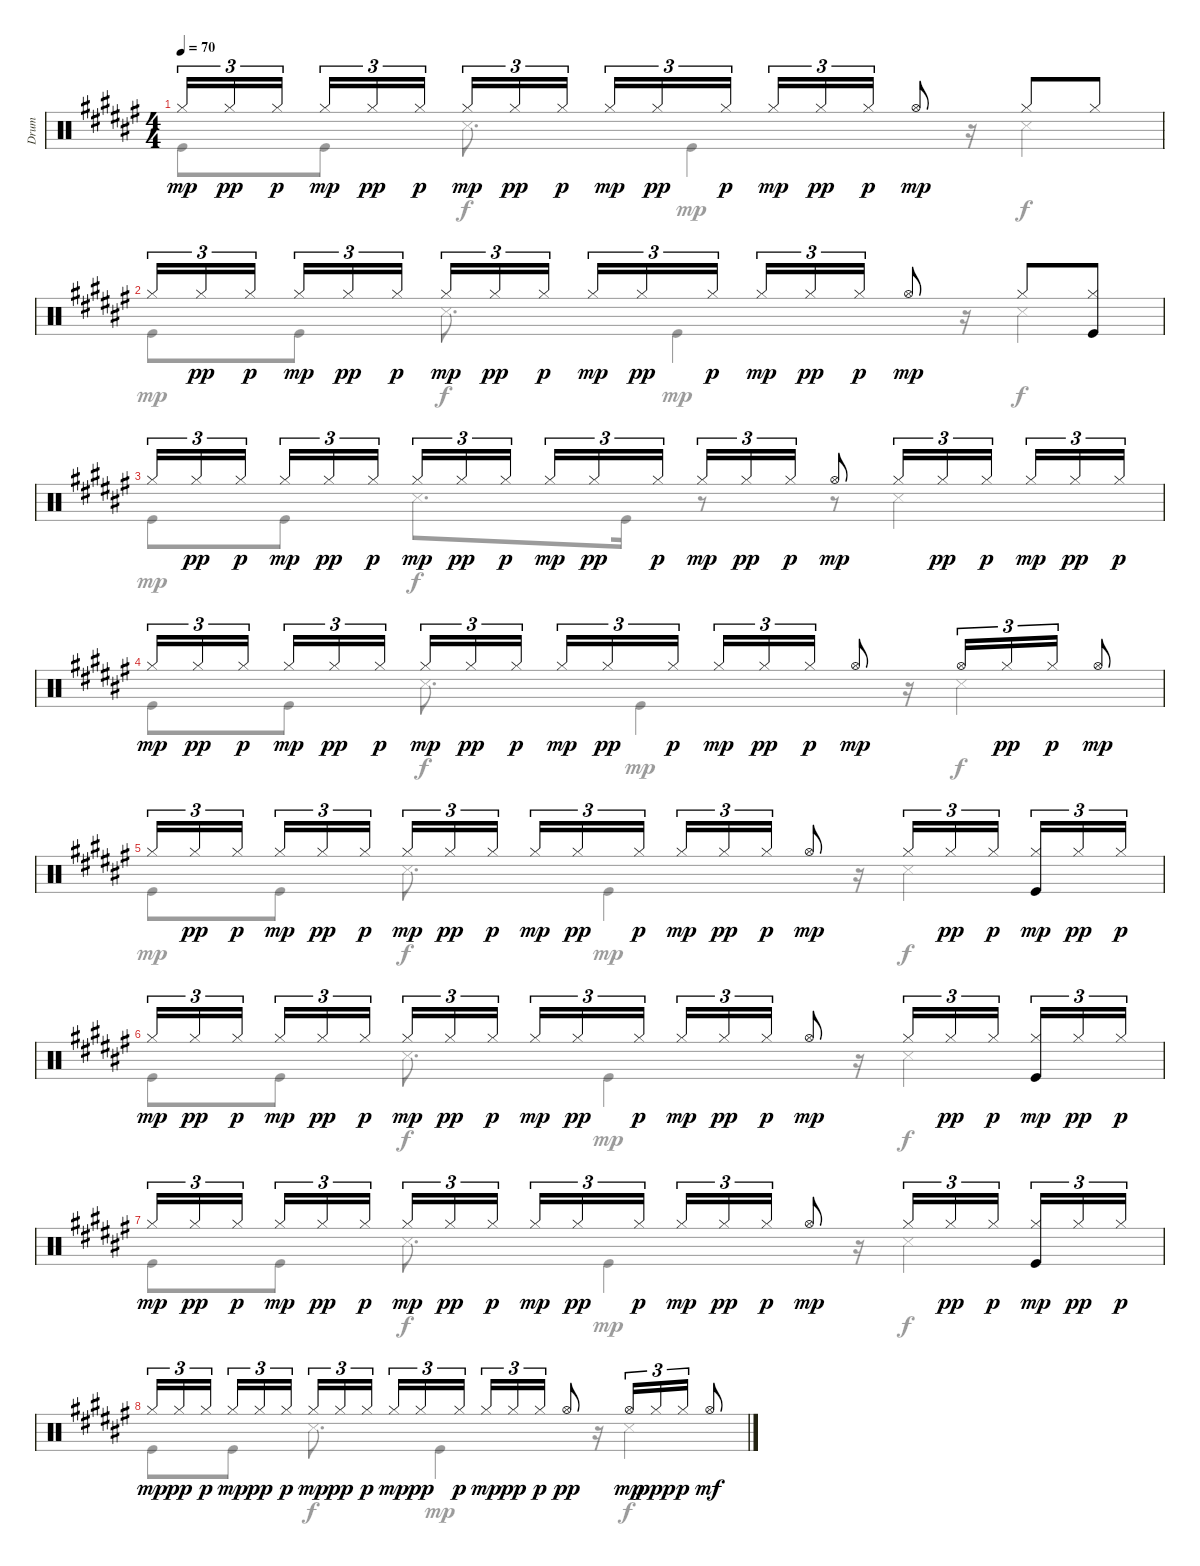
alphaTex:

\track ("Drum" "Drum") {instrument percussion}
\staff {score}
\articulation defaults
\voice
\ts (4 4)
\tempo 70
\clef neutral
\ks f# "Hi-Hat (closed)".16{tu (3 2) dy mp} "Hi-Hat (closed)".16{tu (3 2) dy pp} "Hi-Hat (closed)".16{tu (3 2) dy p beam splitsecondary} "Hi-Hat (closed)".16{tu (3 2) dy mp} "Hi-Hat (closed)".16{tu (3 2) dy pp} "Hi-Hat (closed)".16{tu (3 2) dy p} "Hi-Hat (closed)".16{tu (3 2) dy mp} "Hi-Hat (closed)".16{tu (3 2) dy pp} "Hi-Hat (closed)".16{tu (3 2) dy p beam splitsecondary} "Hi-Hat (closed)".16{tu (3 2) dy mp} "Hi-Hat (closed)".16{tu (3 2) dy pp} "Hi-Hat (closed)".16{tu (3 2) dy p} "Hi-Hat (closed)".16{tu (3 2) dy mp} "Hi-Hat (closed)".16{tu (3 2) dy pp} "Hi-Hat (closed)".16{tu (3 2) dy p} "Hi-Hat (open)".8{dy mp} "Hi-Hat (closed)".8 "Hi-Hat (closed)".8
|
"Hi-Hat (closed)".16{tu (3 2)} "Hi-Hat (closed)".16{tu (3 2) dy pp} "Hi-Hat (closed)".16{tu (3 2) dy p beam splitsecondary} "Hi-Hat (closed)".16{tu (3 2) dy mp} "Hi-Hat (closed)".16{tu (3 2) dy pp} "Hi-Hat (closed)".16{tu (3 2) dy p} "Hi-Hat (closed)".16{tu (3 2) dy mp} "Hi-Hat (closed)".16{tu (3 2) dy pp} "Hi-Hat (closed)".16{tu (3 2) dy p beam splitsecondary} "Hi-Hat (closed)".16{tu (3 2) dy mp} "Hi-Hat (closed)".16{tu (3 2) dy pp} "Hi-Hat (closed)".16{tu (3 2) dy p} "Hi-Hat (closed)".16{tu (3 2) dy mp} "Hi-Hat (closed)".16{tu (3 2) dy pp} "Hi-Hat (closed)".16{tu (3 2) dy p} "Hi-Hat (open)".8{dy mp} "Hi-Hat (closed)".8 ("Hi-Hat (closed)" "Kick (hit)").8 |
"Hi-Hat (closed)".16{tu (3 2)} "Hi-Hat (closed)".16{tu (3 2) dy pp} "Hi-Hat (closed)".16{tu (3 2) dy p beam splitsecondary} "Hi-Hat (closed)".16{tu (3 2) dy mp} "Hi-Hat (closed)".16{tu (3 2) dy pp} "Hi-Hat (closed)".16{tu (3 2) dy p} "Hi-Hat (closed)".16{tu (3 2) dy mp} "Hi-Hat (closed)".16{tu (3 2) dy pp} "Hi-Hat (closed)".16{tu (3 2) dy p beam splitsecondary} "Hi-Hat (closed)".16{tu (3 2) dy mp} "Hi-Hat (closed)".16{tu (3 2) dy pp} "Hi-Hat (closed)".16{tu (3 2) dy p} "Hi-Hat (closed)".16{tu (3 2) dy mp} "Hi-Hat (closed)".16{tu (3 2) dy pp} "Hi-Hat (closed)".16{tu (3 2) dy p} "Hi-Hat (open)".8{dy mp} "Hi-Hat (closed)".16{tu (3 2)} "Hi-Hat (closed)".16{tu (3 2) dy pp} "Hi-Hat (closed)".16{tu (3 2) dy p beam splitsecondary} "Hi-Hat (closed)".16{tu (3 2) dy mp} "Hi-Hat (closed)".16{tu (3 2) dy pp} "Hi-Hat (closed)".16{tu (3 2) dy p} |
"Hi-Hat (closed)".16{tu (3 2) dy mp} "Hi-Hat (closed)".16{tu (3 2) dy pp} "Hi-Hat (closed)".16{tu (3 2) dy p beam splitsecondary} "Hi-Hat (closed)".16{tu (3 2) dy mp} "Hi-Hat (closed)".16{tu (3 2) dy pp} "Hi-Hat (closed)".16{tu (3 2) dy p} "Hi-Hat (closed)".16{tu (3 2) dy mp} "Hi-Hat (closed)".16{tu (3 2) dy pp} "Hi-Hat (closed)".16{tu (3 2) dy p beam splitsecondary} "Hi-Hat (closed)".16{tu (3 2) dy mp} "Hi-Hat (closed)".16{tu (3 2) dy pp} "Hi-Hat (closed)".16{tu (3 2) dy p} "Hi-Hat (closed)".16{tu (3 2) dy mp} "Hi-Hat (closed)".16{tu (3 2) dy pp} "Hi-Hat (closed)".16{tu (3 2) dy p} "Hi-Hat (open)".8{dy mp} "Hi-Hat (open)".16{tu (3 2)} "Hi-Hat (closed)".16{tu (3 2) dy pp} "Hi-Hat (closed)".16{tu (3 2) dy p} "Hi-Hat (open)".8{dy mp} |
"Hi-Hat (closed)".16{tu (3 2)} "Hi-Hat (closed)".16{tu (3 2) dy pp} "Hi-Hat (closed)".16{tu (3 2) dy p beam splitsecondary} "Hi-Hat (closed)".16{tu (3 2) dy mp} "Hi-Hat (closed)".16{tu (3 2) dy pp} "Hi-Hat (closed)".16{tu (3 2) dy p} "Hi-Hat (closed)".16{tu (3 2) dy mp} "Hi-Hat (closed)".16{tu (3 2) dy pp} "Hi-Hat (closed)".16{tu (3 2) dy p beam splitsecondary} "Hi-Hat (closed)".16{tu (3 2) dy mp} "Hi-Hat (closed)".16{tu (3 2) dy pp} "Hi-Hat (closed)".16{tu (3 2) dy p} "Hi-Hat (closed)".16{tu (3 2) dy mp} "Hi-Hat (closed)".16{tu (3 2) dy pp} "Hi-Hat (closed)".16{tu (3 2) dy p} "Hi-Hat (open)".8{dy mp} "Hi-Hat (closed)".16{tu (3 2)} "Hi-Hat (closed)".16{tu (3 2) dy pp} "Hi-Hat (closed)".16{tu (3 2) dy p beam splitsecondary} ("Hi-Hat (closed)" "Kick (hit)").16{tu (3 2) dy mp} "Hi-Hat (closed)".16{tu (3 2) dy pp} "Hi-Hat (closed)".16{tu (3 2) dy p} |
"Hi-Hat (closed)".16{tu (3 2) dy mp} "Hi-Hat (closed)".16{tu (3 2) dy pp} "Hi-Hat (closed)".16{tu (3 2) dy p beam splitsecondary} "Hi-Hat (closed)".16{tu (3 2) dy mp} "Hi-Hat (closed)".16{tu (3 2) dy pp} "Hi-Hat (closed)".16{tu (3 2) dy p} "Hi-Hat (closed)".16{tu (3 2) dy mp} "Hi-Hat (closed)".16{tu (3 2) dy pp} "Hi-Hat (closed)".16{tu (3 2) dy p beam splitsecondary} "Hi-Hat (closed)".16{tu (3 2) dy mp} "Hi-Hat (closed)".16{tu (3 2) dy pp} "Hi-Hat (closed)".16{tu (3 2) dy p} "Hi-Hat (closed)".16{tu (3 2) dy mp} "Hi-Hat (closed)".16{tu (3 2) dy pp} "Hi-Hat (closed)".16{tu (3 2) dy p} "Hi-Hat (open)".8{dy mp} "Hi-Hat (closed)".16{tu (3 2)} "Hi-Hat (closed)".16{tu (3 2) dy pp} "Hi-Hat (closed)".16{tu (3 2) dy p beam splitsecondary} ("Hi-Hat (closed)" "Kick (hit)").16{tu (3 2) dy mp} "Hi-Hat (closed)".16{tu (3 2) dy pp} "Hi-Hat (closed)".16{tu (3 2) dy p} |
"Hi-Hat (closed)".16{tu (3 2) dy mp} "Hi-Hat (closed)".16{tu (3 2) dy pp} "Hi-Hat (closed)".16{tu (3 2) dy p beam splitsecondary} "Hi-Hat (closed)".16{tu (3 2) dy mp} "Hi-Hat (closed)".16{tu (3 2) dy pp} "Hi-Hat (closed)".16{tu (3 2) dy p} "Hi-Hat (closed)".16{tu (3 2) dy mp} "Hi-Hat (closed)".16{tu (3 2) dy pp} "Hi-Hat (closed)".16{tu (3 2) dy p beam splitsecondary} "Hi-Hat (closed)".16{tu (3 2) dy mp} "Hi-Hat (closed)".16{tu (3 2) dy pp} "Hi-Hat (closed)".16{tu (3 2) dy p} "Hi-Hat (closed)".16{tu (3 2) dy mp} "Hi-Hat (closed)".16{tu (3 2) dy pp} "Hi-Hat (closed)".16{tu (3 2) dy p} "Hi-Hat (open)".8{dy mp} "Hi-Hat (closed)".16{tu (3 2)} "Hi-Hat (closed)".16{tu (3 2) dy pp} "Hi-Hat (closed)".16{tu (3 2) dy p beam splitsecondary} ("Hi-Hat (closed)" "Kick (hit)").16{tu (3 2) dy mp} "Hi-Hat (closed)".16{tu (3 2) dy pp} "Hi-Hat (closed)".16{tu (3 2) dy p} |
"Hi-Hat (closed)".16{tu (3 2) dy mp} "Hi-Hat (closed)".16{tu (3 2) dy pp} "Hi-Hat (closed)".16{tu (3 2) dy p beam splitsecondary} "Hi-Hat (closed)".16{tu (3 2) dy mp} "Hi-Hat (closed)".16{tu (3 2) dy pp} "Hi-Hat (closed)".16{tu (3 2) dy p} "Hi-Hat (closed)".16{tu (3 2) dy mp} "Hi-Hat (closed)".16{tu (3 2) dy pp} "Hi-Hat (closed)".16{tu (3 2) dy p beam splitsecondary} "Hi-Hat (closed)".16{tu (3 2) dy mp} "Hi-Hat (closed)".16{tu (3 2) dy pp} "Hi-Hat (closed)".16{tu (3 2) dy p} "Hi-Hat (closed)".16{tu (3 2) dy mp} "Hi-Hat (closed)".16{tu (3 2) dy pp} "Hi-Hat (closed)".16{tu (3 2) dy p} "Hi-Hat (open)".8{dy pp} "Hi-Hat (open)".16{tu (3 2) dy mp} "Hi-Hat (closed)".16{tu (3 2) dy ppp} "Hi-Hat (closed)".16{tu (3 2) dy p} "Hi-Hat (open)".8{dy mf}
\voice
\clef neutral
\ottava regular
\simile none
\ks f# "Kick (hit)".8{dy mp} "Kick (hit)".8 "Metronome (hit)".8{d dy f} "Kick (hit)".4{dy mp}
r.16 "Metronome (hit)".4{dy f} |
"Kick (hit)".8{dy mp} "Kick (hit)".8 "Metronome (hit)".8{d dy f} "Kick (hit)".4{dy mp} r.16 "Metronome (hit)".4{dy f} |
"Kick (hit)".8{dy mp} "Kick (hit)".8 "Metronome (hit)".8{d dy f} "Kick (hit)".16 r.8 r.8 "Metronome (hit)".4 |
"Kick (hit)".8{dy mp} "Kick (hit)".8 "Metronome (hit)".8{d dy f} "Kick (hit)".4{dy mp} r.16 "Metronome (hit)".4{dy f} |
"Kick (hit)".8{dy mp} "Kick (hit)".8 "Metronome (hit)".8{d dy f} "Kick (hit)".4{dy mp} r.16 "Metronome (hit)".4{dy f} |
"Kick (hit)".8{dy mp} "Kick (hit)".8 "Metronome (hit)".8{d dy f} "Kick (hit)".4{dy mp} r.16 "Metronome (hit)".4{dy f} |
"Kick (hit)".8{dy mp} "Kick (hit)".8 "Metronome (hit)".8{d dy f} "Kick (hit)".4{dy mp} r.16 "Metronome (hit)".4{dy f} |
"Kick (hit)".8{dy mp} "Kick (hit)".8 "Metronome (hit)".8{d dy f} "Kick (hit)".4{dy mp} r.16 "Metronome (hit)".4{dy f}
